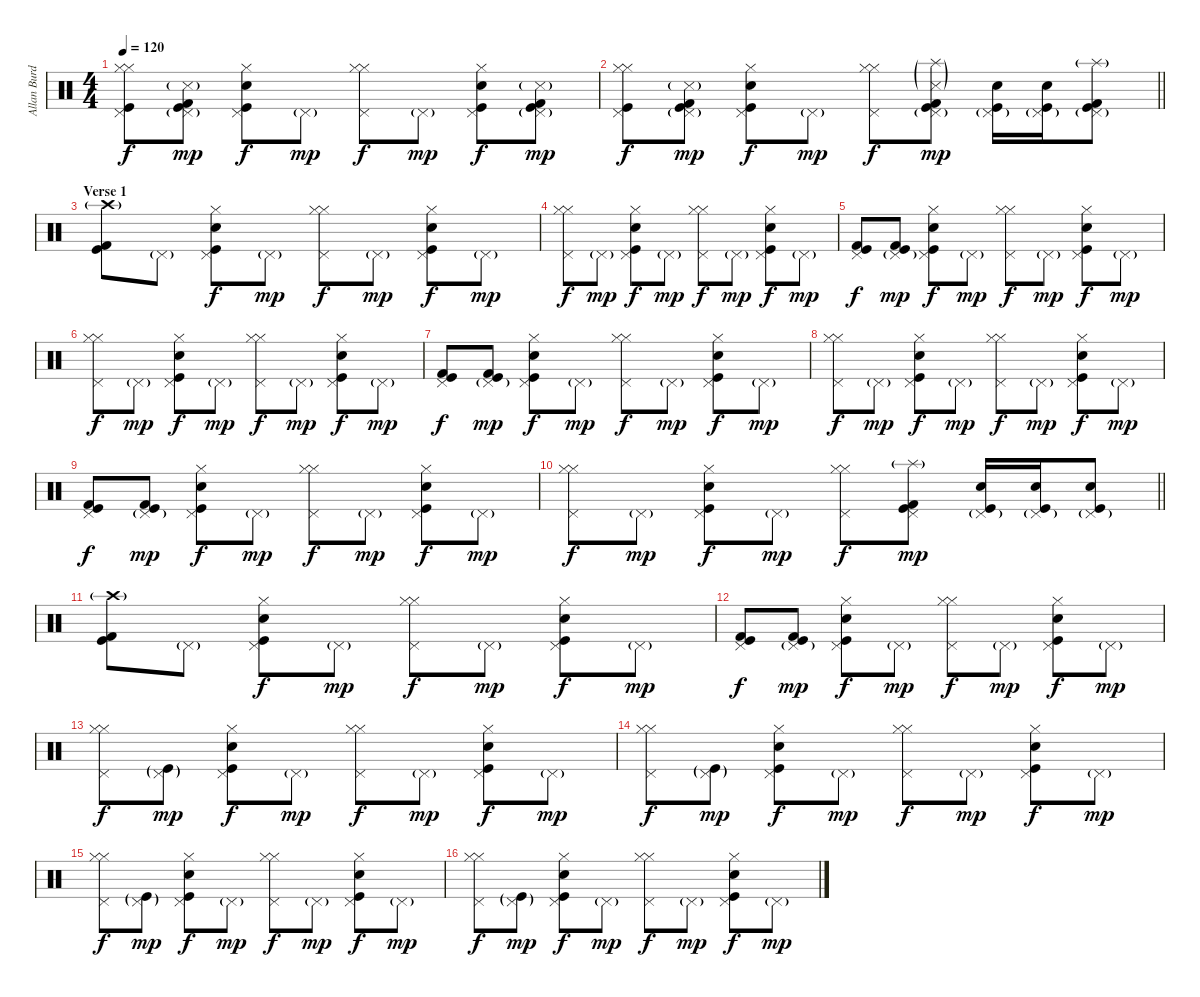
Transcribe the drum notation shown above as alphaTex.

\track ("Allan Burdeos(Drums)" "Allan Burd") {instrument percussion}
\staff {score}
\articulation defaults
\ts (4 4)
\tempo 120
\clef neutral
\ks c
("Hi-Hat (closed)" "Hi-Hat (closed)" "Pedal Hi-Hat (hit)" "Kick (hit)").8{dy f} ("Pedal Hi-Hat (hit)"{g} "Kick (hit) 2" "Kick (hit)" "Metronome (hit)"{g}).8{dy mp} ("Pedal Hi-Hat (hit)" "Hi-Hat (closed)" "Kick (hit)" "Electric Snare (hit)").8{dy f} "Pedal Hi-Hat (hit)"{g}.8{dy mp} ("Hi-Hat (closed)" "Hi-Hat (closed)" "Pedal Hi-Hat (hit)").8{dy f} "Pedal Hi-Hat (hit)"{g}.8{dy mp} ("Pedal Hi-Hat (hit)" "Hi-Hat (closed)" "Kick (hit)" "Electric Snare (hit)").8{dy f} ("Pedal Hi-Hat (hit)"{g} "Kick (hit) 2" "Kick (hit)" "Metronome (hit)"{g}).8{dy mp} |
\barLineRight lightlight
("Hi-Hat (closed)" "Hi-Hat (closed)" "Pedal Hi-Hat (hit)" "Kick (hit)").8{dy f} ("Pedal Hi-Hat (hit)"{g} "Kick (hit) 2" "Kick (hit)" "Metronome (hit)"{g}).8{dy mp} ("Pedal Hi-Hat (hit)" "Hi-Hat (closed)" "Kick (hit)" "Electric Snare (hit)").8{dy f} "Pedal Hi-Hat (hit)"{g}.8{dy mp} ("Hi-Hat (closed)" "Hi-Hat (closed)" "Pedal Hi-Hat (hit)").8{dy f} ("Pedal Hi-Hat (hit)"{g} "Kick (hit) 2" "Kick (hit)" "Metronome (hit)"{g} "Splash (hit)"{g}).8{dy mp} ("Pedal Hi-Hat (hit)"{g} "Kick (hit)" "Electric Snare (hit)").16 ("Pedal Hi-Hat (hit)"{g} "Kick (hit)" "Electric Snare (hit)").16 ("Pedal Hi-Hat (hit)"{g} "Kick (hit) 2" "Kick (hit)" "Splash (hit)"{g}).8 |
\section ("" "Verse 1")
("Crash high (hit)"{g} "Kick (hit) 2" "Kick (hit)").8 "Pedal Hi-Hat (hit)"{g}.8 ("Pedal Hi-Hat (hit)" "Hi-Hat (closed)" "Kick (hit)" "Electric Snare (hit)").8{dy f} "Pedal Hi-Hat (hit)"{g}.8{dy mp} ("Pedal Hi-Hat (hit)" "Hi-Hat (closed)" "Hi-Hat (closed)").8{dy f} "Pedal Hi-Hat (hit)"{g}.8{dy mp} ("Pedal Hi-Hat (hit)" "Hi-Hat (closed)" "Kick (hit)" "Electric Snare (hit)").8{dy f} "Pedal Hi-Hat (hit)"{g}.8{dy mp} |
("Pedal Hi-Hat (hit)" "Hi-Hat (closed)" "Hi-Hat (closed)").8{dy f} "Pedal Hi-Hat (hit)"{g}.8{dy mp} ("Pedal Hi-Hat (hit)" "Hi-Hat (closed)" "Kick (hit)" "Electric Snare (hit)").8{dy f} "Pedal Hi-Hat (hit)"{g}.8{dy mp} ("Pedal Hi-Hat (hit)" "Hi-Hat (closed)" "Hi-Hat (closed)").8{dy f} "Pedal Hi-Hat (hit)"{g}.8{dy mp} ("Pedal Hi-Hat (hit)" "Hi-Hat (closed)" "Kick (hit)" "Electric Snare (hit)").8{dy f} "Pedal Hi-Hat (hit)"{g}.8{dy mp} |
("Pedal Hi-Hat (hit)" "Kick (hit) 2" "Kick (hit)").8{dy f} ("Pedal Hi-Hat (hit)"{g} "Kick (hit) 2" "Kick (hit)").8{dy mp} ("Pedal Hi-Hat (hit)" "Hi-Hat (closed)" "Kick (hit)" "Electric Snare (hit)").8{dy f} "Pedal Hi-Hat (hit)"{g}.8{dy mp} ("Pedal Hi-Hat (hit)" "Hi-Hat (closed)" "Hi-Hat (closed)").8{dy f} "Pedal Hi-Hat (hit)"{g}.8{dy mp} ("Pedal Hi-Hat (hit)" "Hi-Hat (closed)" "Kick (hit)" "Electric Snare (hit)").8{dy f} "Pedal Hi-Hat (hit)"{g}.8{dy mp} |
("Pedal Hi-Hat (hit)" "Hi-Hat (closed)" "Hi-Hat (closed)").8{dy f} "Pedal Hi-Hat (hit)"{g}.8{dy mp} ("Pedal Hi-Hat (hit)" "Hi-Hat (closed)" "Kick (hit)" "Electric Snare (hit)").8{dy f} "Pedal Hi-Hat (hit)"{g}.8{dy mp} ("Pedal Hi-Hat (hit)" "Hi-Hat (closed)" "Hi-Hat (closed)").8{dy f} "Pedal Hi-Hat (hit)"{g}.8{dy mp} ("Pedal Hi-Hat (hit)" "Hi-Hat (closed)" "Kick (hit)" "Electric Snare (hit)").8{dy f} "Pedal Hi-Hat (hit)"{g}.8{dy mp} |
("Pedal Hi-Hat (hit)" "Kick (hit) 2" "Kick (hit)").8{dy f} ("Pedal Hi-Hat (hit)"{g} "Kick (hit) 2" "Kick (hit)").8{dy mp} ("Pedal Hi-Hat (hit)" "Hi-Hat (closed)" "Kick (hit)" "Electric Snare (hit)").8{dy f} "Pedal Hi-Hat (hit)"{g}.8{dy mp} ("Pedal Hi-Hat (hit)" "Hi-Hat (closed)" "Hi-Hat (closed)").8{dy f} "Pedal Hi-Hat (hit)"{g}.8{dy mp} ("Pedal Hi-Hat (hit)" "Hi-Hat (closed)" "Kick (hit)" "Electric Snare (hit)").8{dy f} "Pedal Hi-Hat (hit)"{g}.8{dy mp} |
("Pedal Hi-Hat (hit)" "Hi-Hat (closed)" "Hi-Hat (closed)").8{dy f} "Pedal Hi-Hat (hit)"{g}.8{dy mp} ("Pedal Hi-Hat (hit)" "Hi-Hat (closed)" "Kick (hit)" "Electric Snare (hit)").8{dy f} "Pedal Hi-Hat (hit)"{g}.8{dy mp} ("Pedal Hi-Hat (hit)" "Hi-Hat (closed)" "Hi-Hat (closed)").8{dy f} "Pedal Hi-Hat (hit)"{g}.8{dy mp} ("Pedal Hi-Hat (hit)" "Hi-Hat (closed)" "Kick (hit)" "Electric Snare (hit)").8{dy f} "Pedal Hi-Hat (hit)"{g}.8{dy mp} |
("Pedal Hi-Hat (hit)" "Kick (hit) 2" "Kick (hit)").8{dy f} ("Pedal Hi-Hat (hit)"{g} "Kick (hit) 2" "Kick (hit)").8{dy mp} ("Pedal Hi-Hat (hit)" "Hi-Hat (closed)" "Kick (hit)" "Electric Snare (hit)").8{dy f} "Pedal Hi-Hat (hit)"{g}.8{dy mp} ("Pedal Hi-Hat (hit)" "Hi-Hat (closed)" "Hi-Hat (closed)").8{dy f} "Pedal Hi-Hat (hit)"{g}.8{dy mp} ("Pedal Hi-Hat (hit)" "Hi-Hat (closed)" "Kick (hit)" "Electric Snare (hit)").8{dy f} "Pedal Hi-Hat (hit)"{g}.8{dy mp} |
\barLineRight lightlight
("Pedal Hi-Hat (hit)" "Hi-Hat (closed)" "Hi-Hat (closed)").8{dy f} "Pedal Hi-Hat (hit)"{g}.8{dy mp} ("Pedal Hi-Hat (hit)" "Hi-Hat (closed)" "Kick (hit)" "Electric Snare (hit)").8{dy f} "Pedal Hi-Hat (hit)"{g}.8{dy mp} ("Pedal Hi-Hat (hit)" "Hi-Hat (closed)" "Hi-Hat (closed)").8{dy f} ("Pedal Hi-Hat (hit)" "Kick (hit) 2" "Kick (hit)" "Splash (hit)"{g}).8{dy mp} ("Pedal Hi-Hat (hit)"{g} "Kick (hit)" "Electric Snare (hit)").16 ("Pedal Hi-Hat (hit)"{g} "Kick (hit)" "Electric Snare (hit)").16 ("Pedal Hi-Hat (hit)"{g} "Kick (hit)" "Electric Snare (hit)").8 |
\section ("" "")
("Crash high (hit)"{g} "Kick (hit) 2" "Kick (hit)").8 "Pedal Hi-Hat (hit)"{g}.8 ("Pedal Hi-Hat (hit)" "Hi-Hat (closed)" "Kick (hit)" "Electric Snare (hit)").8{dy f} "Pedal Hi-Hat (hit)"{g}.8{dy mp} ("Pedal Hi-Hat (hit)" "Hi-Hat (closed)" "Hi-Hat (closed)").8{dy f} "Pedal Hi-Hat (hit)"{g}.8{dy mp} ("Pedal Hi-Hat (hit)" "Hi-Hat (closed)" "Kick (hit)" "Electric Snare (hit)").8{dy f} "Pedal Hi-Hat (hit)"{g}.8{dy mp} |
("Pedal Hi-Hat (hit)" "Kick (hit) 2" "Kick (hit)").8{dy f} ("Pedal Hi-Hat (hit)"{g} "Kick (hit) 2" "Kick (hit)").8{dy mp} ("Pedal Hi-Hat (hit)" "Hi-Hat (closed)" "Kick (hit)" "Electric Snare (hit)").8{dy f} "Pedal Hi-Hat (hit)"{g}.8{dy mp} ("Pedal Hi-Hat (hit)" "Hi-Hat (closed)" "Hi-Hat (closed)").8{dy f} "Pedal Hi-Hat (hit)"{g}.8{dy mp} ("Pedal Hi-Hat (hit)" "Hi-Hat (closed)" "Kick (hit)" "Electric Snare (hit)").8{dy f} "Pedal Hi-Hat (hit)"{g}.8{dy mp} |
("Pedal Hi-Hat (hit)" "Hi-Hat (closed)" "Hi-Hat (closed)").8{dy f} ("Pedal Hi-Hat (hit)"{g} "Kick (hit)"{g}).8{dy mp} ("Pedal Hi-Hat (hit)" "Hi-Hat (closed)" "Kick (hit)" "Electric Snare (hit)").8{dy f} "Pedal Hi-Hat (hit)"{g}.8{dy mp} ("Pedal Hi-Hat (hit)" "Hi-Hat (closed)" "Hi-Hat (closed)").8{dy f} "Pedal Hi-Hat (hit)"{g}.8{dy mp} ("Pedal Hi-Hat (hit)" "Hi-Hat (closed)" "Kick (hit)" "Electric Snare (hit)").8{dy f} "Pedal Hi-Hat (hit)"{g}.8{dy mp} |
("Pedal Hi-Hat (hit)" "Hi-Hat (closed)" "Hi-Hat (closed)").8{dy f} ("Pedal Hi-Hat (hit)"{g} "Kick (hit)"{g}).8{dy mp} ("Pedal Hi-Hat (hit)" "Hi-Hat (closed)" "Kick (hit)" "Electric Snare (hit)").8{dy f} "Pedal Hi-Hat (hit)"{g}.8{dy mp} ("Pedal Hi-Hat (hit)" "Hi-Hat (closed)" "Hi-Hat (closed)").8{dy f} "Pedal Hi-Hat (hit)"{g}.8{dy mp} ("Pedal Hi-Hat (hit)" "Hi-Hat (closed)" "Kick (hit)" "Electric Snare (hit)").8{dy f} "Pedal Hi-Hat (hit)"{g}.8{dy mp} |
("Pedal Hi-Hat (hit)" "Hi-Hat (closed)" "Hi-Hat (closed)").8{dy f} ("Pedal Hi-Hat (hit)"{g} "Kick (hit)"{g}).8{dy mp} ("Pedal Hi-Hat (hit)" "Hi-Hat (closed)" "Kick (hit)" "Electric Snare (hit)").8{dy f} "Pedal Hi-Hat (hit)"{g}.8{dy mp} ("Pedal Hi-Hat (hit)" "Hi-Hat (closed)" "Hi-Hat (closed)").8{dy f} "Pedal Hi-Hat (hit)"{g}.8{dy mp} ("Pedal Hi-Hat (hit)" "Hi-Hat (closed)" "Kick (hit)" "Electric Snare (hit)").8{dy f} "Pedal Hi-Hat (hit)"{g}.8{dy mp} |
("Pedal Hi-Hat (hit)" "Hi-Hat (closed)" "Hi-Hat (closed)").8{dy f} ("Pedal Hi-Hat (hit)"{g} "Kick (hit)"{g}).8{dy mp} ("Pedal Hi-Hat (hit)" "Hi-Hat (closed)" "Kick (hit)" "Electric Snare (hit)").8{dy f} "Pedal Hi-Hat (hit)"{g}.8{dy mp} ("Pedal Hi-Hat (hit)" "Hi-Hat (closed)" "Hi-Hat (closed)").8{dy f} "Pedal Hi-Hat (hit)"{g}.8{dy mp} ("Pedal Hi-Hat (hit)" "Hi-Hat (closed)" "Kick (hit)" "Electric Snare (hit)").8{dy f} "Pedal Hi-Hat (hit)"{g}.8{dy mp}
